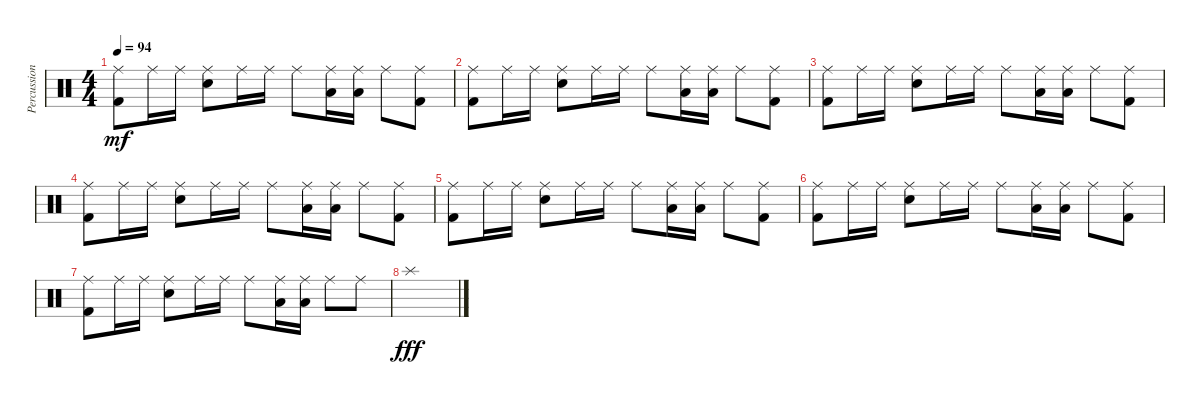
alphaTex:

\track ("Percussions" "Percussion") {instrument percussion}
\staff {score}
\articulation defaults
\ts (4 4)
\tempo 94
\clef neutral
\ks c
("Kick (hit) 2" "Ride (middle)").8{dy mf} "Ride (middle)".16 "Ride (middle)".16 ("Electric Snare (hit)" "Ride (middle)").8 "Ride (middle)".16 "Ride (middle)".16 "Ride (middle)".8 ("Low Tom (hit)" "Ride (middle)").16 ("Low Floor Tom (hit)" "Ride (middle)").16 "Ride (middle)".8 ("Kick (hit) 2" "Ride (middle)").8 |
("Kick (hit) 2" "Ride (middle)").8 "Ride (middle)".16 "Ride (middle)".16 ("Electric Snare (hit)" "Ride (middle)").8 "Ride (middle)".16 "Ride (middle)".16 "Ride (middle)".8 ("Low Tom (hit)" "Ride (middle)").16 ("Low Floor Tom (hit)" "Ride (middle)").16 "Ride (middle)".8 ("Kick (hit) 2" "Ride (middle)").8 |
("Kick (hit) 2" "Ride (middle)").8 "Ride (middle)".16 "Ride (middle)".16 ("Electric Snare (hit)" "Ride (middle)").8 "Ride (middle)".16 "Ride (middle)".16 "Ride (middle)".8 ("Low Tom (hit)" "Ride (middle)").16 ("Low Floor Tom (hit)" "Ride (middle)").16 "Ride (middle)".8 ("Kick (hit) 2" "Ride (middle)").8 |
("Kick (hit) 2" "Ride (middle)").8 "Ride (middle)".16 "Ride (middle)".16 ("Electric Snare (hit)" "Ride (middle)").8 "Ride (middle)".16 "Ride (middle)".16 "Ride (middle)".8 ("Low Tom (hit)" "Ride (middle)").16 ("Low Floor Tom (hit)" "Ride (middle)").16 "Ride (middle)".8 ("Kick (hit) 2" "Ride (middle)").8 |
("Kick (hit) 2" "Ride (middle)").8 "Ride (middle)".16 "Ride (middle)".16 ("Electric Snare (hit)" "Ride (middle)").8 "Ride (middle)".16 "Ride (middle)".16 "Ride (middle)".8 ("Low Tom (hit)" "Ride (middle)").16 ("Low Floor Tom (hit)" "Ride (middle)").16 "Ride (middle)".8 ("Kick (hit) 2" "Ride (middle)").8 |
("Kick (hit) 2" "Ride (middle)").8 "Ride (middle)".16 "Ride (middle)".16 ("Electric Snare (hit)" "Ride (middle)").8 "Ride (middle)".16 "Ride (middle)".16 "Ride (middle)".8 ("Low Tom (hit)" "Ride (middle)").16 ("Low Floor Tom (hit)" "Ride (middle)").16 "Ride (middle)".8 ("Kick (hit) 2" "Ride (middle)").8 |
("Kick (hit) 2" "Ride (middle)").8 "Ride (middle)".16 "Ride (middle)".16 ("Electric Snare (hit)" "Ride (middle)").8 "Ride (middle)".16 "Ride (middle)".16 "Ride (middle)".8 ("Low Tom (hit)" "Ride (middle)").16 ("Low Floor Tom (hit)" "Ride (middle)").16 "Ride (middle)".8 "Ride (middle)".8 |
"Splash (hit)".1{dy fff}
